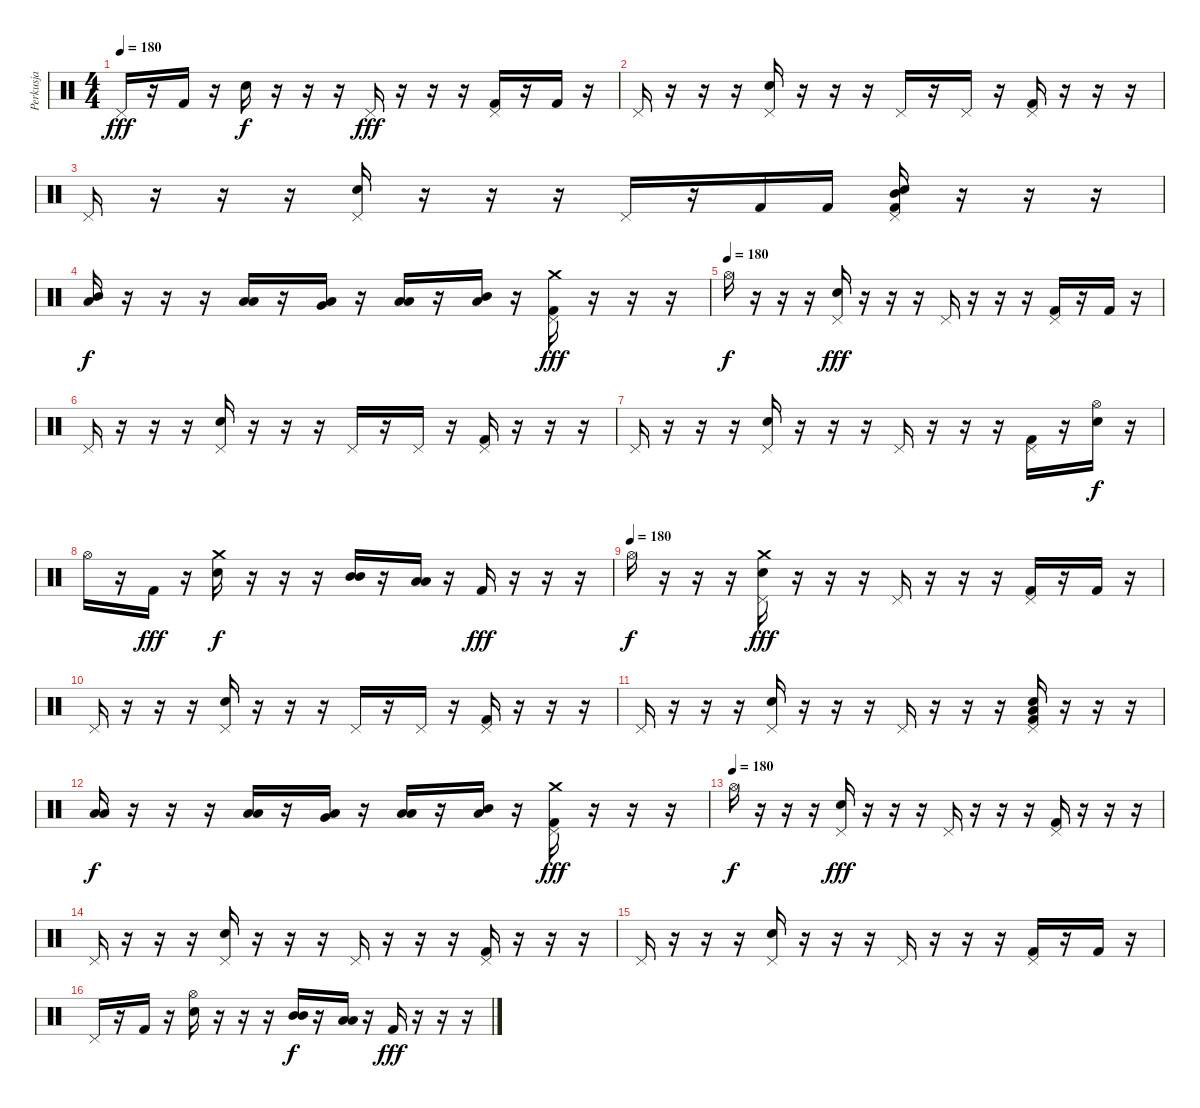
\track ("Perkusja" "Perkusja") {instrument percussion}
\staff {score}
\articulation defaults
\ts (4 4)
\tempo 180
\clef neutral
\ks c "Pedal Hi-Hat (hit)".16{dy fff}
r.16 "Kick (hit) 2".16 r.16 "Snare (hit) 2".16{dy f} r.16 r.16 r.16 "Pedal Hi-Hat (hit)".16{dy fff} r.16 r.16 r.16 ("Pedal Hi-Hat (hit)" "Kick (hit) 2").16 r.16 "Kick (hit) 2".16 r.16 |
"Pedal Hi-Hat (hit)".16 r.16 r.16 r.16 ("Snare (hit) 2" "Pedal Hi-Hat (hit)").16 r.16 r.16 r.16 "Pedal Hi-Hat (hit)".16 r.16 "Pedal Hi-Hat (hit)".16 r.16 ("Pedal Hi-Hat (hit)" "Kick (hit) 2").16 r.16 r.16 r.16 |
"Pedal Hi-Hat (hit)".16 r.16 r.16 r.16 ("Snare (hit) 2" "Pedal Hi-Hat (hit)").16 r.16 r.16 r.16 "Pedal Hi-Hat (hit)".16 r.16 "Kick (hit) 2".16 "Kick (hit) 2".16 ("Snare (hit) 2" "Mid Tom (hit)" "Pedal Hi-Hat (hit)" "Kick (hit) 2").16 r.16 r.16 r.16 |
("Mid Tom (hit)" "Low Tom (hit)").16{dy f} r.16 r.16 r.16 ("Low Floor Tom (hit)" "Low Tom (hit)").16 r.16 ("Very Low Tom (hit)" "Low Tom (hit)").16 r.16 ("Low Tom (hit)" "Low Tom (hit)").16 r.16 ("Mid Tom (hit)" "Low Tom (hit)").16 r.16 ("Crash medium (hit)" "Pedal Hi-Hat (hit)" "Kick (hit) 2").16{dy fff} r.16 r.16 r.16 |
\tempo (180)
"Hi-Hat (open)".16{dy f} r.16 r.16 r.16 ("Snare (hit) 2" "Pedal Hi-Hat (hit)").16{dy fff} r.16 r.16 r.16 "Pedal Hi-Hat (hit)".16 r.16 r.16 r.16 ("Pedal Hi-Hat (hit)" "Kick (hit) 2").16 r.16 "Kick (hit) 2".16 r.16 |
"Pedal Hi-Hat (hit)".16 r.16 r.16 r.16 ("Snare (hit) 2" "Pedal Hi-Hat (hit)").16 r.16 r.16 r.16 "Pedal Hi-Hat (hit)".16 r.16 "Pedal Hi-Hat (hit)".16 r.16 ("Pedal Hi-Hat (hit)" "Kick (hit) 2").16 r.16 r.16 r.16 |
"Pedal Hi-Hat (hit)".16 r.16 r.16 r.16 ("Snare (hit) 2" "Pedal Hi-Hat (hit)").16 r.16 r.16 r.16 "Pedal Hi-Hat (hit)".16 r.16 r.16 r.16 ("Pedal Hi-Hat (hit)" "Kick (hit) 2").16 r.16 ("Snare (hit) 2" "Hi-Hat (open)").16{dy f} r.16 |
"Hi-Hat (open)".16 r.16 "Kick (hit) 2".16{dy fff} r.16 ("Snare (hit) 2" "Crash medium (hit)").16{dy f} r.16 r.16 r.16 ("Mid Tom (hit)" "Mid Tom (hit)").16 r.16 ("Low Tom (hit)" "Low Tom (hit)").16 r.16 "Kick (hit) 2".16{dy fff} r.16 r.16 r.16 |
\tempo (180)
"Hi-Hat (open)".16{dy f} r.16 r.16 r.16 ("Snare (hit) 2" "Crash medium (hit)" "Pedal Hi-Hat (hit)").16{dy fff} r.16 r.16 r.16 "Pedal Hi-Hat (hit)".16 r.16 r.16 r.16 ("Pedal Hi-Hat (hit)" "Kick (hit) 2").16 r.16 "Kick (hit) 2".16 r.16 |
"Pedal Hi-Hat (hit)".16 r.16 r.16 r.16 ("Snare (hit) 2" "Pedal Hi-Hat (hit)").16 r.16 r.16 r.16 "Pedal Hi-Hat (hit)".16 r.16 "Pedal Hi-Hat (hit)".16 r.16 ("Pedal Hi-Hat (hit)" "Kick (hit) 2").16 r.16 r.16 r.16 |
"Pedal Hi-Hat (hit)".16 r.16 r.16 r.16 ("Snare (hit) 2" "Pedal Hi-Hat (hit)").16 r.16 r.16 r.16 "Pedal Hi-Hat (hit)".16 r.16 r.16 r.16 ("Snare (hit) 2" "Low Tom (hit)" "Pedal Hi-Hat (hit)" "Kick (hit) 2").16 r.16 r.16 r.16 |
("Low Tom (hit)" "Low Tom (hit)").16{dy f} r.16 r.16 r.16 ("Low Floor Tom (hit)" "Low Tom (hit)").16 r.16 ("Very Low Tom (hit)" "Low Tom (hit)").16 r.16 ("Low Tom (hit)" "Low Tom (hit)").16 r.16 ("Mid Tom (hit)" "Low Tom (hit)").16 r.16 ("Crash medium (hit)" "Pedal Hi-Hat (hit)" "Kick (hit) 2").16{dy fff} r.16 r.16 r.16 |
\tempo (180)
"Hi-Hat (open)".16{dy f} r.16 r.16 r.16 ("Snare (hit) 2" "Pedal Hi-Hat (hit)").16{dy fff} r.16 r.16 r.16 "Pedal Hi-Hat (hit)".16 r.16 r.16 r.16 ("Pedal Hi-Hat (hit)" "Kick (hit) 2").16 r.16 r.16 r.16 |
"Pedal Hi-Hat (hit)".16 r.16 r.16 r.16 ("Snare (hit) 2" "Pedal Hi-Hat (hit)").16 r.16 r.16 r.16 "Pedal Hi-Hat (hit)".16 r.16 r.16 r.16 ("Pedal Hi-Hat (hit)" "Kick (hit) 2").16 r.16 r.16 r.16 |
"Pedal Hi-Hat (hit)".16 r.16 r.16 r.16 ("Snare (hit) 2" "Pedal Hi-Hat (hit)").16 r.16 r.16 r.16 "Pedal Hi-Hat (hit)".16 r.16 r.16 r.16 ("Pedal Hi-Hat (hit)" "Kick (hit) 2").16 r.16 "Kick (hit) 2".16 r.16 |
"Pedal Hi-Hat (hit)".16 r.16 "Kick (hit) 2".16 r.16 ("Snare (hit) 2" "Hi-Hat (open)").16 r.16 r.16 r.16 ("Mid Tom (hit)" "Mid Tom (hit)").16{dy f} r.16 ("Low Tom (hit)" "Low Tom (hit)").16 r.16 "Kick (hit) 2".16{dy fff} r.16 r.16 r.16
